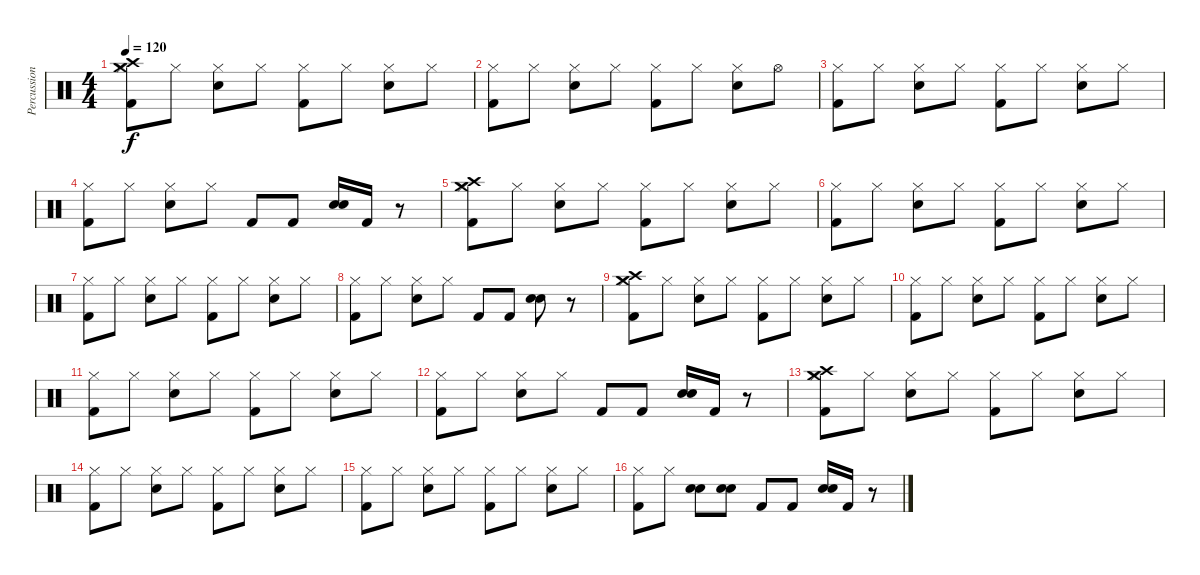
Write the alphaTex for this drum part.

\track ("Percussion" "Percussion") {instrument percussion}
\staff {score}
\articulation defaults
\ts (4 4)
\tempo 120
\clef neutral
\ks c
("Crash high (hit)" "Crash medium (hit)" "Kick (hit) 2" "Hi-Hat (closed)").8{dy f} "Hi-Hat (closed)".8 ("Electric Snare (hit)" "Hi-Hat (closed)").8 "Hi-Hat (closed)".8 ("Kick (hit) 2" "Hi-Hat (closed)").8 "Hi-Hat (closed)".8 ("Electric Snare (hit)" "Hi-Hat (closed)").8 "Hi-Hat (closed)".8 |
("Kick (hit) 2" "Hi-Hat (closed)").8 "Hi-Hat (closed)".8 ("Electric Snare (hit)" "Hi-Hat (closed)").8 "Hi-Hat (closed)".8 ("Kick (hit) 2" "Hi-Hat (closed)").8 "Hi-Hat (closed)".8 ("Electric Snare (hit)" "Hi-Hat (closed)").8 "Hi-Hat (open)".8 |
("Kick (hit) 2" "Hi-Hat (closed)").8 "Hi-Hat (closed)".8 ("Electric Snare (hit)" "Hi-Hat (closed)").8 "Hi-Hat (closed)".8 ("Kick (hit) 2" "Hi-Hat (closed)").8 "Hi-Hat (closed)".8 ("Electric Snare (hit)" "Hi-Hat (closed)").8 "Hi-Hat (closed)".8 |
("Kick (hit) 2" "Hi-Hat (closed)").8 "Hi-Hat (closed)".8 ("Electric Snare (hit)" "Hi-Hat (closed)").8 "Hi-Hat (closed)".8 "Kick (hit) 2".8 "Kick (hit) 2".8 ("Electric Snare (hit)" "Electric Snare (hit)").16 "Kick (hit) 2".16 r.8 |
("Crash high (hit)" "Crash medium (hit)" "Kick (hit) 2" "Hi-Hat (closed)").8 "Hi-Hat (closed)".8 ("Electric Snare (hit)" "Hi-Hat (closed)").8 "Hi-Hat (closed)".8 ("Kick (hit) 2" "Hi-Hat (closed)").8 "Hi-Hat (closed)".8 ("Electric Snare (hit)" "Hi-Hat (closed)").8 "Hi-Hat (closed)".8 |
("Kick (hit) 2" "Hi-Hat (closed)").8 "Hi-Hat (closed)".8 ("Electric Snare (hit)" "Hi-Hat (closed)").8 "Hi-Hat (closed)".8 ("Kick (hit) 2" "Hi-Hat (closed)").8 "Hi-Hat (closed)".8 ("Electric Snare (hit)" "Hi-Hat (closed)").8 "Hi-Hat (closed)".8 |
("Kick (hit) 2" "Hi-Hat (closed)").8 "Hi-Hat (closed)".8 ("Electric Snare (hit)" "Hi-Hat (closed)").8 "Hi-Hat (closed)".8 ("Kick (hit) 2" "Hi-Hat (closed)").8 "Hi-Hat (closed)".8 ("Electric Snare (hit)" "Hi-Hat (closed)").8 "Hi-Hat (closed)".8 |
("Kick (hit) 2" "Hi-Hat (closed)").8 "Hi-Hat (closed)".8 ("Electric Snare (hit)" "Hi-Hat (closed)").8 "Hi-Hat (closed)".8 "Kick (hit) 2".8 "Kick (hit) 2".8 ("Electric Snare (hit)" "Electric Snare (hit)").8 r.8 |
("Crash high (hit)" "Crash medium (hit)" "Kick (hit) 2" "Hi-Hat (closed)").8 "Hi-Hat (closed)".8 ("Electric Snare (hit)" "Hi-Hat (closed)").8 "Hi-Hat (closed)".8 ("Kick (hit) 2" "Hi-Hat (closed)").8 "Hi-Hat (closed)".8 ("Electric Snare (hit)" "Hi-Hat (closed)").8 "Hi-Hat (closed)".8 |
("Kick (hit) 2" "Hi-Hat (closed)").8 "Hi-Hat (closed)".8 ("Electric Snare (hit)" "Hi-Hat (closed)").8 "Hi-Hat (closed)".8 ("Kick (hit) 2" "Hi-Hat (closed)").8 "Hi-Hat (closed)".8 ("Electric Snare (hit)" "Hi-Hat (closed)").8 "Hi-Hat (closed)".8 |
("Kick (hit) 2" "Hi-Hat (closed)").8 "Hi-Hat (closed)".8 ("Electric Snare (hit)" "Hi-Hat (closed)").8 "Hi-Hat (closed)".8 ("Kick (hit) 2" "Hi-Hat (closed)").8 "Hi-Hat (closed)".8 ("Electric Snare (hit)" "Hi-Hat (closed)").8 "Hi-Hat (closed)".8 |
("Kick (hit) 2" "Hi-Hat (closed)").8 "Hi-Hat (closed)".8 ("Electric Snare (hit)" "Hi-Hat (closed)").8 "Hi-Hat (closed)".8 "Kick (hit) 2".8 "Kick (hit) 2".8 ("Electric Snare (hit)" "Electric Snare (hit)").16 "Kick (hit) 2".16 r.8 |
("Crash high (hit)" "Crash medium (hit)" "Kick (hit) 2" "Hi-Hat (closed)").8 "Hi-Hat (closed)".8 ("Electric Snare (hit)" "Hi-Hat (closed)").8 "Hi-Hat (closed)".8 ("Kick (hit) 2" "Hi-Hat (closed)").8 "Hi-Hat (closed)".8 ("Electric Snare (hit)" "Hi-Hat (closed)").8 "Hi-Hat (closed)".8 |
("Kick (hit) 2" "Hi-Hat (closed)").8 "Hi-Hat (closed)".8 ("Electric Snare (hit)" "Hi-Hat (closed)").8 "Hi-Hat (closed)".8 ("Kick (hit) 2" "Hi-Hat (closed)").8 "Hi-Hat (closed)".8 ("Electric Snare (hit)" "Hi-Hat (closed)").8 "Hi-Hat (closed)".8 |
("Kick (hit) 2" "Hi-Hat (closed)").8 "Hi-Hat (closed)".8 ("Electric Snare (hit)" "Hi-Hat (closed)").8 "Hi-Hat (closed)".8 ("Kick (hit) 2" "Hi-Hat (closed)").8 "Hi-Hat (closed)".8 ("Electric Snare (hit)" "Hi-Hat (closed)").8 "Hi-Hat (closed)".8 |
("Kick (hit) 2" "Hi-Hat (closed)").8 "Hi-Hat (closed)".8 ("Electric Snare (hit)" "Electric Snare (hit)").8 ("Electric Snare (hit)" "Electric Snare (hit)").8 "Kick (hit) 2".8 "Kick (hit) 2".8 ("Electric Snare (hit)" "Electric Snare (hit)").16 "Kick (hit) 2".16 r.8
